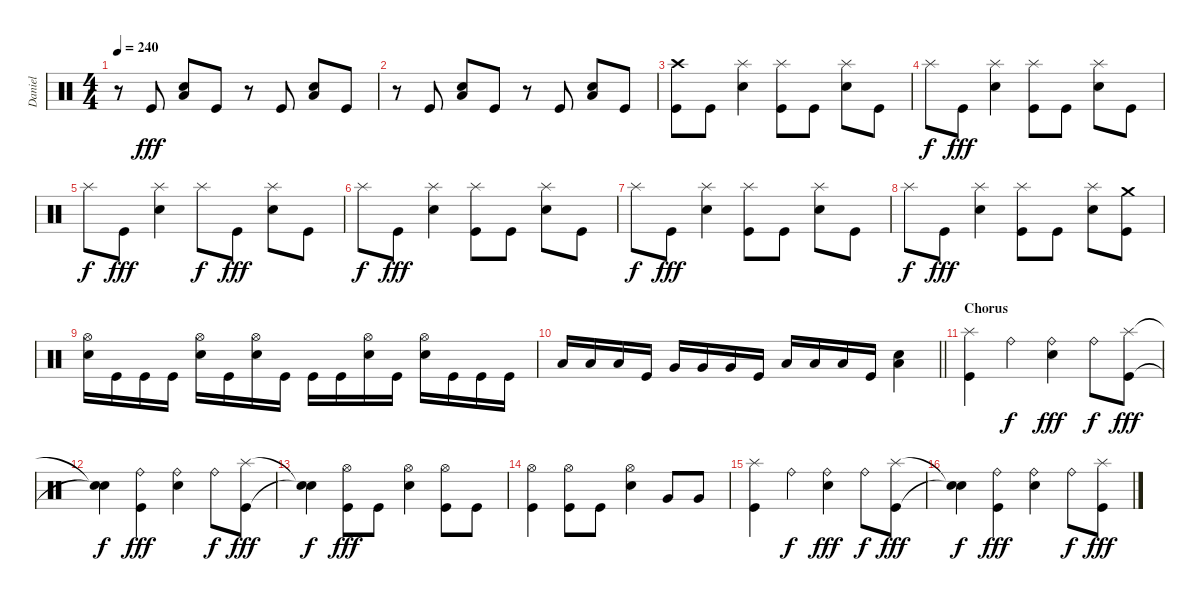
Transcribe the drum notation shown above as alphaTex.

\track ("Daniel" "Daniel") {instrument percussion}
\staff {score}
\articulation defaults
\ts (4 4)
\tempo 240
\clef neutral
\ks c
r.8{dy fff} "Kick (hit)".8 ("Electric Snare (hit)" "Low Floor Tom (hit)").8 "Kick (hit)".8 r.8 "Kick (hit)".8 ("Electric Snare (hit)" "Low Floor Tom (hit)").8 "Kick (hit)".8 |
r.8 "Kick (hit)".8 ("Electric Snare (hit)" "Low Floor Tom (hit)").8 "Kick (hit)".8 r.8 "Kick (hit)".8 ("Electric Snare (hit)" "Low Floor Tom (hit)").8 "Kick (hit)".8 |
("Kick (hit)" "Crash high (hit)").8 "Kick (hit)".8 ("Electric Snare (hit)" "Splash (hit)").4 ("Kick (hit)" "Splash (hit)").8 "Kick (hit)".8 ("Electric Snare (hit)" "Splash (hit)").8 "Kick (hit)".8 |
"Splash (hit)".8{dy f} "Kick (hit)".8{dy fff} ("Electric Snare (hit)" "Splash (hit)").4 ("Kick (hit)" "Splash (hit)").8 "Kick (hit)".8 ("Electric Snare (hit)" "Splash (hit)").8 "Kick (hit)".8 |
"Splash (hit)".8{dy f} "Kick (hit)".8{dy fff} ("Electric Snare (hit)" "Splash (hit)").4 "Splash (hit)".8{dy f} "Kick (hit)".8{dy fff} ("Electric Snare (hit)" "Splash (hit)").8 "Kick (hit)".8 |
"Splash (hit)".8{dy f} "Kick (hit)".8{dy fff} ("Electric Snare (hit)" "Splash (hit)").4 ("Kick (hit)" "Splash (hit)").8 "Kick (hit)".8 ("Electric Snare (hit)" "Splash (hit)").8 "Kick (hit)".8 |
"Splash (hit)".8{dy f} "Kick (hit)".8{dy fff} ("Electric Snare (hit)" "Splash (hit)").4 ("Kick (hit)" "Splash (hit)").8 "Kick (hit)".8 ("Electric Snare (hit)" "Splash (hit)").8 "Kick (hit)".8 |
"Splash (hit)".8{dy f} "Kick (hit)".8{dy fff} ("Electric Snare (hit)" "Splash (hit)").4 ("Kick (hit)" "Splash (hit)").8 "Kick (hit)".8 ("Electric Snare (hit)" "Splash (hit)").8 ("Kick (hit)" "Crash medium (hit)").8 |
("Electric Snare (hit)" "Hi-Hat (open)").16 "Kick (hit)".16 "Kick (hit)".16 "Kick (hit)".16 ("Electric Snare (hit)" "Hi-Hat (open)").16 "Kick (hit)".16 ("Electric Snare (hit)" "Hi-Hat (open)").16 "Kick (hit)".16 "Kick (hit)".16 "Kick (hit)".16 ("Electric Snare (hit)" "Hi-Hat (open)").16 "Kick (hit)".16 ("Electric Snare (hit)" "Hi-Hat (open)").16 "Kick (hit)".16 "Kick (hit)".16 "Kick (hit)".16 |
\barLineRight lightlight "Low Tom (hit)".16 "Low Tom (hit)".16 "Low Tom (hit)".16 "Kick (hit)".16 "Very Low Tom (hit)".16 "Very Low Tom (hit)".16 "Very Low Tom (hit)".16 "Kick (hit)".16 "Low Floor Tom (hit)".16 "Low Floor Tom (hit)".16 "Low Floor Tom (hit)".16 "Kick (hit)".16
("Electric Snare (hit)" "Low Floor Tom (hit)").4 |
\section ("" "Chorus")
("Kick (hit)" "Splash (hit)").4 "Ride (bell)".4{dy f} ("Electric Snare (hit)" "Ride (bell)").4{dy fff} "Ride (bell)".8{dy f} ("Kick (hit)" "Splash (hit)").8{dy fff} |
("Snare (hit)"{t} "Snare (hit)"{t}).4{dy f} ("Kick (hit)" "Ride (bell)").4{dy fff} ("Electric Snare (hit)" "Ride (bell)").4 "Ride (bell)".8{dy f} ("Kick (hit)" "Splash (hit)").8{dy fff} |
("Snare (hit)"{t} "Snare (hit)"{t}).4{dy f} ("Kick (hit)" "Hi-Hat (open)").8{dy fff} "Kick (hit)".8 ("Electric Snare (hit)" "Hi-Hat (open)").4 ("Kick (hit)" "Hi-Hat (open)").8 "Kick (hit)".8 |
("Kick (hit)" "Hi-Hat (open)").4 ("Kick (hit)" "Hi-Hat (open)").8 "Kick (hit)".8 ("Electric Snare (hit)" "Hi-Hat (open)").4 "Very Low Tom (hit)".8 "Very Low Tom (hit)".8 |
("Kick (hit)" "Splash (hit)").4 "Ride (bell)".4{dy f} ("Electric Snare (hit)" "Ride (bell)").4{dy fff} "Ride (bell)".8{dy f} ("Kick (hit)" "Splash (hit)").8{dy fff} |
("Snare (hit)"{t} "Snare (hit)"{t}).4{dy f} ("Kick (hit)" "Ride (bell)").4{dy fff} ("Electric Snare (hit)" "Ride (bell)").4 "Ride (bell)".8{dy f} ("Kick (hit)" "Splash (hit)").8{dy fff}
